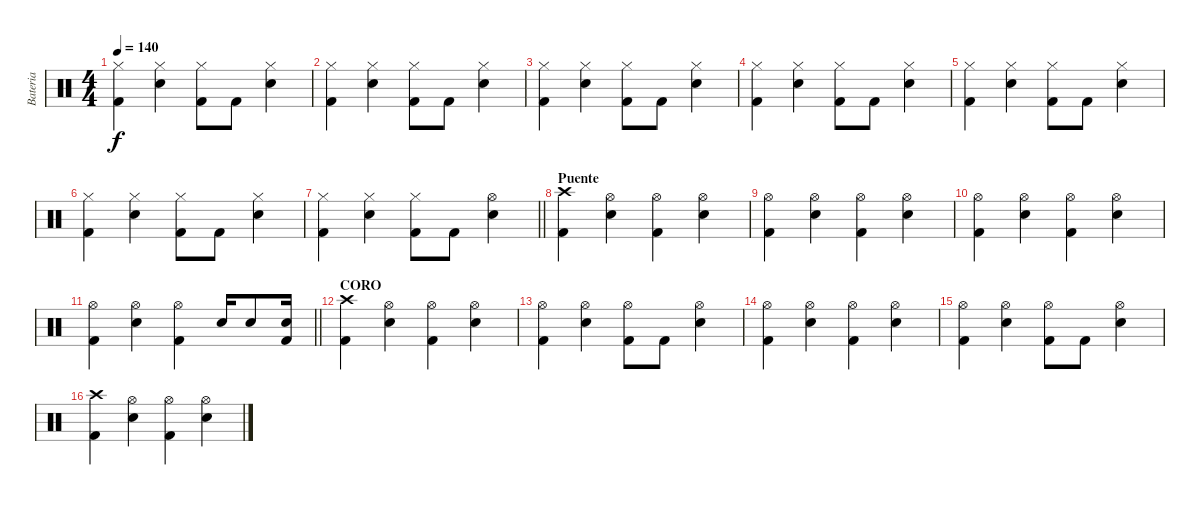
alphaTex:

\track ("Bateria" "Bateria") {instrument percussion}
\staff {score}
\articulation defaults
\ts (4 4)
\tempo 140
\clef neutral
\ks c
("Hi-Hat (closed)" "Kick (hit) 2").4{dy f} ("Hi-Hat (closed)" "Electric Snare (hit)").4 ("Hi-Hat (closed)" "Kick (hit) 2").8 "Kick (hit) 2".8 ("Hi-Hat (closed)" "Electric Snare (hit)").4 |
("Hi-Hat (closed)" "Kick (hit) 2").4 ("Hi-Hat (closed)" "Electric Snare (hit)").4 ("Hi-Hat (closed)" "Kick (hit) 2").8 "Kick (hit) 2".8 ("Hi-Hat (closed)" "Electric Snare (hit)").4 |
("Hi-Hat (closed)" "Kick (hit) 2").4 ("Hi-Hat (closed)" "Electric Snare (hit)").4 ("Hi-Hat (closed)" "Kick (hit) 2").8 "Kick (hit) 2".8 ("Hi-Hat (closed)" "Electric Snare (hit)").4 |
("Hi-Hat (closed)" "Kick (hit) 2").4 ("Hi-Hat (closed)" "Electric Snare (hit)").4 ("Hi-Hat (closed)" "Kick (hit) 2").8 "Kick (hit) 2".8 ("Hi-Hat (closed)" "Electric Snare (hit)").4 |
("Hi-Hat (closed)" "Kick (hit) 2").4 ("Hi-Hat (closed)" "Electric Snare (hit)").4 ("Hi-Hat (closed)" "Kick (hit) 2").8 "Kick (hit) 2".8 ("Hi-Hat (closed)" "Electric Snare (hit)").4 |
("Hi-Hat (closed)" "Kick (hit) 2").4 ("Hi-Hat (closed)" "Electric Snare (hit)").4 ("Hi-Hat (closed)" "Kick (hit) 2").8 "Kick (hit) 2".8 ("Hi-Hat (closed)" "Electric Snare (hit)").4 |
\barLineRight lightlight
("Hi-Hat (closed)" "Kick (hit) 2").4 ("Hi-Hat (closed)" "Electric Snare (hit)").4 ("Hi-Hat (closed)" "Kick (hit) 2").8 "Kick (hit) 2".8 ("Hi-Hat (open)" "Electric Snare (hit)").4 |
\section ("" "Puente")
("Crash high (hit)" "Kick (hit) 2").4 ("Hi-Hat (open)" "Electric Snare (hit)").4 ("Hi-Hat (open)" "Kick (hit) 2").4 ("Hi-Hat (open)" "Electric Snare (hit)").4 |
("Hi-Hat (open)" "Kick (hit) 2").4 ("Hi-Hat (open)" "Electric Snare (hit)").4 ("Hi-Hat (open)" "Kick (hit) 2").4 ("Hi-Hat (open)" "Electric Snare (hit)").4 |
("Hi-Hat (open)" "Kick (hit) 2").4 ("Hi-Hat (open)" "Electric Snare (hit)").4 ("Hi-Hat (open)" "Kick (hit) 2").4 ("Hi-Hat (open)" "Electric Snare (hit)").4 |
\barLineRight lightlight
("Hi-Hat (open)" "Kick (hit) 2").4 ("Hi-Hat (open)" "Electric Snare (hit)").4 ("Hi-Hat (open)" "Kick (hit) 2").4 "Electric Snare (hit)".16 "Electric Snare (hit)".8 ("Electric Snare (hit)" "Kick (hit) 2").16 |
\section ("" "CORO")
("Crash high (hit)" "Kick (hit) 2").4 ("Hi-Hat (open)" "Electric Snare (hit)").4 ("Hi-Hat (open)" "Kick (hit) 2").4 ("Hi-Hat (open)" "Electric Snare (hit)").4 |
("Hi-Hat (open)" "Kick (hit) 2").4 ("Hi-Hat (open)" "Electric Snare (hit)").4 ("Hi-Hat (open)" "Kick (hit) 2").8 "Kick (hit) 2".8 ("Hi-Hat (open)" "Electric Snare (hit)").4 |
("Hi-Hat (open)" "Kick (hit) 2").4 ("Hi-Hat (open)" "Electric Snare (hit)").4 ("Hi-Hat (open)" "Kick (hit) 2").4 ("Hi-Hat (open)" "Electric Snare (hit)").4 |
("Hi-Hat (open)" "Kick (hit) 2").4 ("Hi-Hat (open)" "Electric Snare (hit)").4 ("Hi-Hat (open)" "Kick (hit) 2").8 "Kick (hit) 2".8 ("Hi-Hat (open)" "Electric Snare (hit)").4 |
("Crash high (hit)" "Kick (hit) 2").4 ("Hi-Hat (open)" "Electric Snare (hit)").4 ("Hi-Hat (open)" "Kick (hit) 2").4 ("Hi-Hat (open)" "Electric Snare (hit)").4
